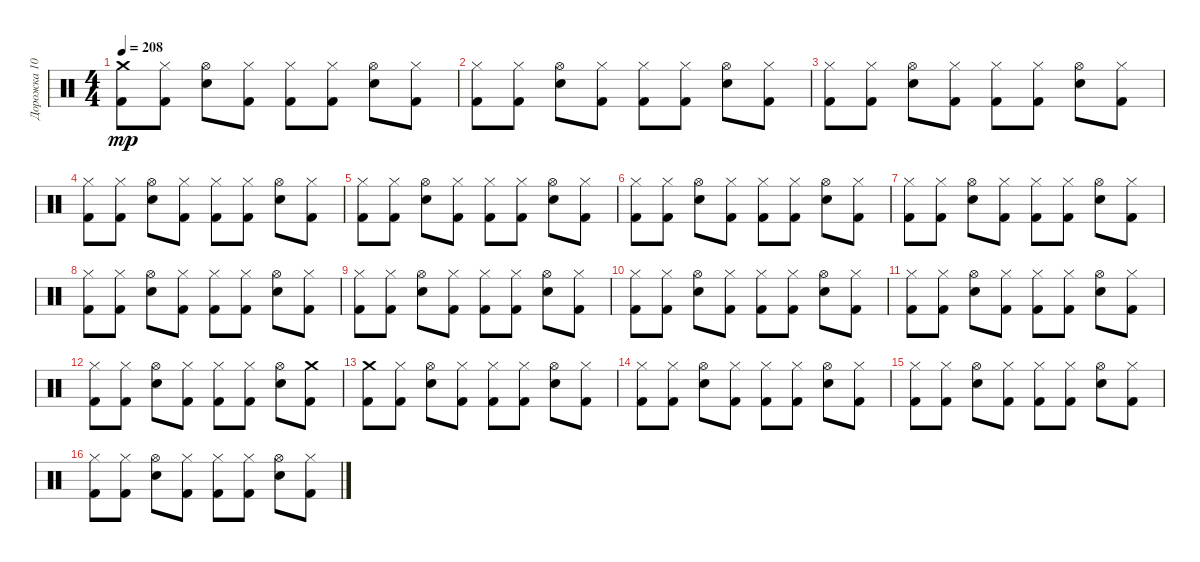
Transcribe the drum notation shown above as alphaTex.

\track ("Дорожка 10" "Дорожка 10") {instrument percussion}
\staff {score}
\articulation defaults
\ts (4 4)
\tempo 208
\clef neutral
\ks c
("Kick (hit) 2" "Crash medium (hit)").8{dy mp} ("Kick (hit) 2" "Hi-Hat (closed)").8 ("Snare (hit) 2" "Hi-Hat (open)").8 ("Kick (hit) 2" "Hi-Hat (closed)").8 ("Kick (hit) 2" "Hi-Hat (closed)").8 ("Kick (hit) 2" "Hi-Hat (closed)").8 ("Snare (hit) 2" "Hi-Hat (open)").8 ("Kick (hit) 2" "Hi-Hat (closed)").8 |
("Kick (hit) 2" "Hi-Hat (closed)").8 ("Kick (hit) 2" "Hi-Hat (closed)").8 ("Snare (hit) 2" "Hi-Hat (open)").8 ("Kick (hit) 2" "Hi-Hat (closed)").8 ("Kick (hit) 2" "Hi-Hat (closed)").8 ("Kick (hit) 2" "Hi-Hat (closed)").8 ("Snare (hit) 2" "Hi-Hat (open)").8 ("Kick (hit) 2" "Hi-Hat (closed)").8 |
("Kick (hit) 2" "Hi-Hat (closed)").8 ("Kick (hit) 2" "Hi-Hat (closed)").8 ("Snare (hit) 2" "Hi-Hat (open)").8 ("Kick (hit) 2" "Hi-Hat (closed)").8 ("Kick (hit) 2" "Hi-Hat (closed)").8 ("Kick (hit) 2" "Hi-Hat (closed)").8 ("Snare (hit) 2" "Hi-Hat (open)").8 ("Kick (hit) 2" "Hi-Hat (closed)").8 |
("Kick (hit) 2" "Hi-Hat (closed)").8 ("Kick (hit) 2" "Hi-Hat (closed)").8 ("Snare (hit) 2" "Hi-Hat (open)").8 ("Kick (hit) 2" "Hi-Hat (closed)").8 ("Kick (hit) 2" "Hi-Hat (closed)").8 ("Kick (hit) 2" "Hi-Hat (closed)").8 ("Snare (hit) 2" "Hi-Hat (open)").8 ("Kick (hit) 2" "Hi-Hat (closed)").8 |
("Kick (hit) 2" "Hi-Hat (closed)").8 ("Kick (hit) 2" "Hi-Hat (closed)").8 ("Snare (hit) 2" "Hi-Hat (open)").8 ("Kick (hit) 2" "Hi-Hat (closed)").8 ("Kick (hit) 2" "Hi-Hat (closed)").8 ("Kick (hit) 2" "Hi-Hat (closed)").8 ("Snare (hit) 2" "Hi-Hat (open)").8 ("Kick (hit) 2" "Hi-Hat (closed)").8 |
("Kick (hit) 2" "Hi-Hat (closed)").8 ("Kick (hit) 2" "Hi-Hat (closed)").8 ("Snare (hit) 2" "Hi-Hat (open)").8 ("Kick (hit) 2" "Hi-Hat (closed)").8 ("Kick (hit) 2" "Hi-Hat (closed)").8 ("Kick (hit) 2" "Hi-Hat (closed)").8 ("Snare (hit) 2" "Hi-Hat (open)").8 ("Kick (hit) 2" "Hi-Hat (closed)").8 |
("Kick (hit) 2" "Hi-Hat (closed)").8 ("Kick (hit) 2" "Hi-Hat (closed)").8 ("Snare (hit) 2" "Hi-Hat (open)").8 ("Kick (hit) 2" "Hi-Hat (closed)").8 ("Kick (hit) 2" "Hi-Hat (closed)").8 ("Kick (hit) 2" "Hi-Hat (closed)").8 ("Snare (hit) 2" "Hi-Hat (open)").8 ("Kick (hit) 2" "Hi-Hat (closed)").8 |
("Kick (hit) 2" "Hi-Hat (closed)").8 ("Kick (hit) 2" "Hi-Hat (closed)").8 ("Snare (hit) 2" "Hi-Hat (open)").8 ("Kick (hit) 2" "Hi-Hat (closed)").8 ("Kick (hit) 2" "Hi-Hat (closed)").8 ("Kick (hit) 2" "Hi-Hat (closed)").8 ("Snare (hit) 2" "Hi-Hat (open)").8 ("Kick (hit) 2" "Hi-Hat (closed)").8 |
("Kick (hit) 2" "Hi-Hat (closed)").8 ("Kick (hit) 2" "Hi-Hat (closed)").8 ("Snare (hit) 2" "Hi-Hat (open)").8 ("Kick (hit) 2" "Hi-Hat (closed)").8 ("Kick (hit) 2" "Hi-Hat (closed)").8 ("Kick (hit) 2" "Hi-Hat (closed)").8 ("Snare (hit) 2" "Hi-Hat (open)").8 ("Kick (hit) 2" "Hi-Hat (closed)").8 |
("Kick (hit) 2" "Hi-Hat (closed)").8 ("Kick (hit) 2" "Hi-Hat (closed)").8 ("Snare (hit) 2" "Hi-Hat (open)").8 ("Kick (hit) 2" "Hi-Hat (closed)").8 ("Kick (hit) 2" "Hi-Hat (closed)").8 ("Kick (hit) 2" "Hi-Hat (closed)").8 ("Snare (hit) 2" "Hi-Hat (open)").8 ("Kick (hit) 2" "Hi-Hat (closed)").8 |
("Kick (hit) 2" "Hi-Hat (closed)").8 ("Kick (hit) 2" "Hi-Hat (closed)").8 ("Snare (hit) 2" "Hi-Hat (open)").8 ("Kick (hit) 2" "Hi-Hat (closed)").8 ("Kick (hit) 2" "Hi-Hat (closed)").8 ("Kick (hit) 2" "Hi-Hat (closed)").8 ("Snare (hit) 2" "Hi-Hat (open)").8 ("Kick (hit) 2" "Hi-Hat (closed)").8 |
("Kick (hit) 2" "Hi-Hat (closed)").8 ("Kick (hit) 2" "Hi-Hat (closed)").8 ("Snare (hit) 2" "Hi-Hat (open)").8 ("Kick (hit) 2" "Hi-Hat (closed)").8 ("Kick (hit) 2" "Hi-Hat (closed)").8 ("Kick (hit) 2" "Hi-Hat (closed)").8 ("Snare (hit) 2" "Hi-Hat (open)").8 ("Kick (hit) 2" "Crash medium (hit)").8 |
("Kick (hit) 2" "Crash medium (hit)").8 ("Kick (hit) 2" "Hi-Hat (closed)").8 ("Snare (hit) 2" "Hi-Hat (open)").8 ("Kick (hit) 2" "Hi-Hat (closed)").8 ("Kick (hit) 2" "Hi-Hat (closed)").8 ("Kick (hit) 2" "Hi-Hat (closed)").8 ("Snare (hit) 2" "Hi-Hat (open)").8 ("Kick (hit) 2" "Hi-Hat (closed)").8 |
("Kick (hit) 2" "Hi-Hat (closed)").8 ("Kick (hit) 2" "Hi-Hat (closed)").8 ("Snare (hit) 2" "Hi-Hat (open)").8 ("Kick (hit) 2" "Hi-Hat (closed)").8 ("Kick (hit) 2" "Hi-Hat (closed)").8 ("Kick (hit) 2" "Hi-Hat (closed)").8 ("Snare (hit) 2" "Hi-Hat (open)").8 ("Kick (hit) 2" "Hi-Hat (closed)").8 |
("Kick (hit) 2" "Hi-Hat (closed)").8 ("Kick (hit) 2" "Hi-Hat (closed)").8 ("Snare (hit) 2" "Hi-Hat (open)").8 ("Kick (hit) 2" "Hi-Hat (closed)").8 ("Kick (hit) 2" "Hi-Hat (closed)").8 ("Kick (hit) 2" "Hi-Hat (closed)").8 ("Snare (hit) 2" "Hi-Hat (open)").8 ("Kick (hit) 2" "Hi-Hat (closed)").8 |
("Kick (hit) 2" "Hi-Hat (closed)").8 ("Kick (hit) 2" "Hi-Hat (closed)").8 ("Snare (hit) 2" "Hi-Hat (open)").8 ("Kick (hit) 2" "Hi-Hat (closed)").8 ("Kick (hit) 2" "Hi-Hat (closed)").8 ("Kick (hit) 2" "Hi-Hat (closed)").8 ("Snare (hit) 2" "Hi-Hat (open)").8 ("Kick (hit) 2" "Hi-Hat (closed)").8
